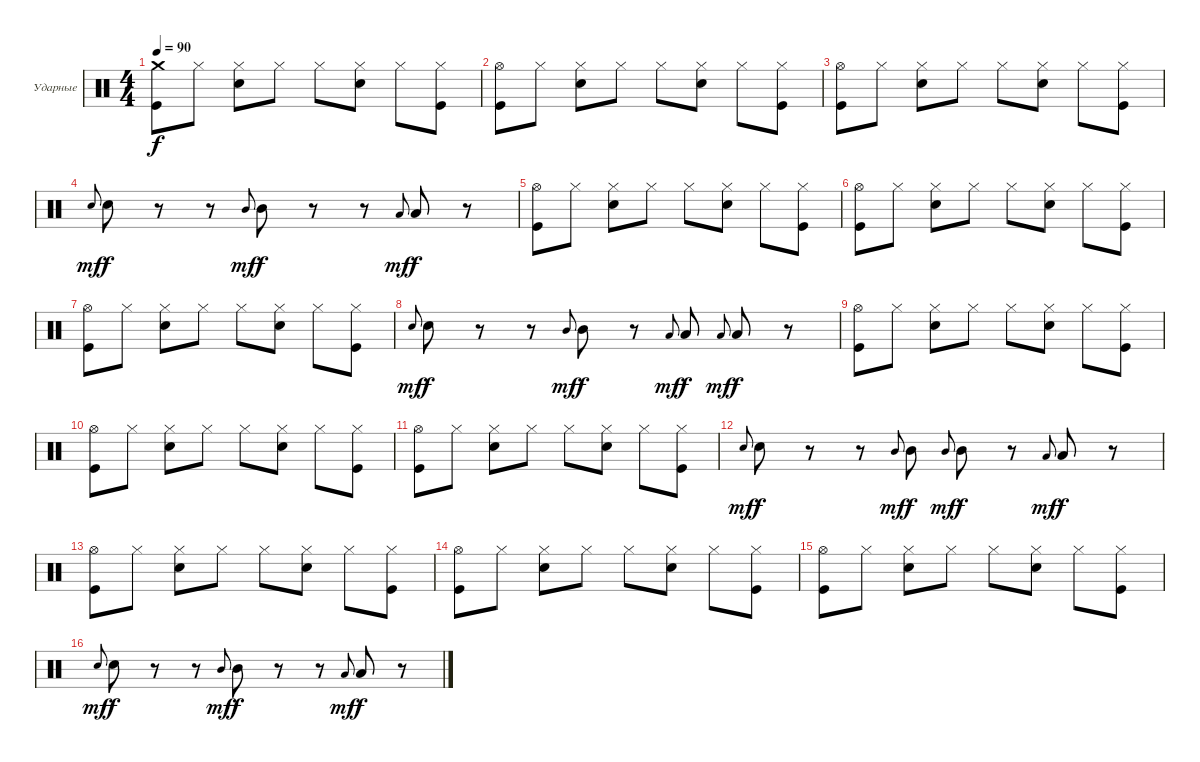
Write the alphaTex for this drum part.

\defaultSystemsLayout 4
\bracketExtendMode groupsimilarinstruments
\firstSystemTrackNameOrientation horizontal
\otherSystemsTrackNameOrientation horizontal
\track ("Drums" "Ударные") {instrument percussion}
\staff {score}
\articulation defaults
\ts (4 4)
\tempo 90
\clef neutral
\ks c
("Crash medium (hit)" "Kick (hit)").8{dy f} "Hi-Hat (closed)".8 ("Hi-Hat (closed)" "Snare (hit) 2").8 "Hi-Hat (closed)".8 "Hi-Hat (closed)".8 ("Hi-Hat (closed)" "Snare (hit) 2").8 "Hi-Hat (closed)".8 ("Hi-Hat (closed)" "Kick (hit)").8 |
("Hi-Hat (open)" "Kick (hit)").8 "Hi-Hat (closed)".8 ("Hi-Hat (closed)" "Snare (hit) 2").8 "Hi-Hat (closed)".8 "Hi-Hat (closed)".8 ("Hi-Hat (closed)" "Snare (hit) 2").8 "Hi-Hat (closed)".8 ("Hi-Hat (closed)" "Kick (hit)").8 |
("Hi-Hat (open)" "Kick (hit)").8 "Hi-Hat (closed)".8 ("Hi-Hat (closed)" "Snare (hit) 2").8 "Hi-Hat (closed)".8 "Hi-Hat (closed)".8 ("Hi-Hat (closed)" "Snare (hit) 2").8 "Hi-Hat (closed)".8 ("Hi-Hat (closed)" "Kick (hit)").8 |
"Snare (hit) 2".8{gr onbeat dy mf} "Snare (hit) 2".8{dy f} r.8 r.8 "Mid Tom (hit)".8{gr onbeat dy mf} "Mid Tom (hit)".8{dy f} r.8 r.8 "Low Tom (hit)".8{gr onbeat dy mf} "Low Tom (hit)".8{dy f} r.8 |
("Hi-Hat (open)" "Kick (hit)").8 "Hi-Hat (closed)".8 ("Hi-Hat (closed)" "Snare (hit) 2").8 "Hi-Hat (closed)".8 "Hi-Hat (closed)".8 ("Hi-Hat (closed)" "Snare (hit) 2").8 "Hi-Hat (closed)".8 ("Hi-Hat (closed)" "Kick (hit)").8 |
("Hi-Hat (open)" "Kick (hit)").8 "Hi-Hat (closed)".8 ("Hi-Hat (closed)" "Snare (hit) 2").8 "Hi-Hat (closed)".8 "Hi-Hat (closed)".8 ("Hi-Hat (closed)" "Snare (hit) 2").8 "Hi-Hat (closed)".8 ("Hi-Hat (closed)" "Kick (hit)").8 |
("Hi-Hat (open)" "Kick (hit)").8 "Hi-Hat (closed)".8 ("Hi-Hat (closed)" "Snare (hit) 2").8 "Hi-Hat (closed)".8 "Hi-Hat (closed)".8 ("Hi-Hat (closed)" "Snare (hit) 2").8 "Hi-Hat (closed)".8 ("Hi-Hat (closed)" "Kick (hit)").8 |
"Snare (hit) 2".8{gr onbeat dy mf} "Snare (hit) 2".8{dy f} r.8 r.8 "Mid Tom (hit)".8{gr onbeat dy mf} "Mid Tom (hit)".8{dy f} r.8 "Low Tom (hit)".8{gr onbeat dy mf} "Low Tom (hit)".8{dy f} "Low Tom (hit)".8{gr onbeat dy mf} "Low Tom (hit)".8{dy f} r.8 |
("Hi-Hat (open)" "Kick (hit)").8 "Hi-Hat (closed)".8 ("Hi-Hat (closed)" "Snare (hit) 2").8 "Hi-Hat (closed)".8 "Hi-Hat (closed)".8 ("Hi-Hat (closed)" "Snare (hit) 2").8 "Hi-Hat (closed)".8 ("Hi-Hat (closed)" "Kick (hit)").8 |
("Hi-Hat (open)" "Kick (hit)").8 "Hi-Hat (closed)".8 ("Hi-Hat (closed)" "Snare (hit) 2").8 "Hi-Hat (closed)".8 "Hi-Hat (closed)".8 ("Hi-Hat (closed)" "Snare (hit) 2").8 "Hi-Hat (closed)".8 ("Hi-Hat (closed)" "Kick (hit)").8 |
("Hi-Hat (open)" "Kick (hit)").8 "Hi-Hat (closed)".8 ("Hi-Hat (closed)" "Snare (hit) 2").8 "Hi-Hat (closed)".8 "Hi-Hat (closed)".8 ("Hi-Hat (closed)" "Snare (hit) 2").8 "Hi-Hat (closed)".8 ("Hi-Hat (closed)" "Kick (hit)").8 |
"Snare (hit) 2".8{gr onbeat dy mf} "Snare (hit) 2".8{dy f} r.8 r.8 "Mid Tom (hit)".8{gr onbeat dy mf} "Mid Tom (hit)".8{dy f} "Mid Tom (hit)".8{gr onbeat dy mf} "Mid Tom (hit)".8{dy f} r.8 "Low Tom (hit)".8{gr onbeat dy mf} "Low Tom (hit)".8{dy f} r.8 |
("Hi-Hat (open)" "Kick (hit)").8 "Hi-Hat (closed)".8 ("Hi-Hat (closed)" "Snare (hit) 2").8 "Hi-Hat (closed)".8 "Hi-Hat (closed)".8 ("Hi-Hat (closed)" "Snare (hit) 2").8 "Hi-Hat (closed)".8 ("Hi-Hat (closed)" "Kick (hit)").8 |
("Hi-Hat (open)" "Kick (hit)").8 "Hi-Hat (closed)".8 ("Hi-Hat (closed)" "Snare (hit) 2").8 "Hi-Hat (closed)".8 "Hi-Hat (closed)".8 ("Hi-Hat (closed)" "Snare (hit) 2").8 "Hi-Hat (closed)".8 ("Hi-Hat (closed)" "Kick (hit)").8 |
("Hi-Hat (open)" "Kick (hit)").8 "Hi-Hat (closed)".8 ("Hi-Hat (closed)" "Snare (hit) 2").8 "Hi-Hat (closed)".8 "Hi-Hat (closed)".8 ("Hi-Hat (closed)" "Snare (hit) 2").8 "Hi-Hat (closed)".8 ("Hi-Hat (closed)" "Kick (hit)").8 |
"Snare (hit) 2".8{gr onbeat dy mf} "Snare (hit) 2".8{dy f} r.8 r.8 "Mid Tom (hit)".8{gr onbeat dy mf} "Mid Tom (hit)".8{dy f} r.8 r.8 "Low Tom (hit)".8{gr onbeat dy mf} "Low Tom (hit)".8{dy f} r.8
